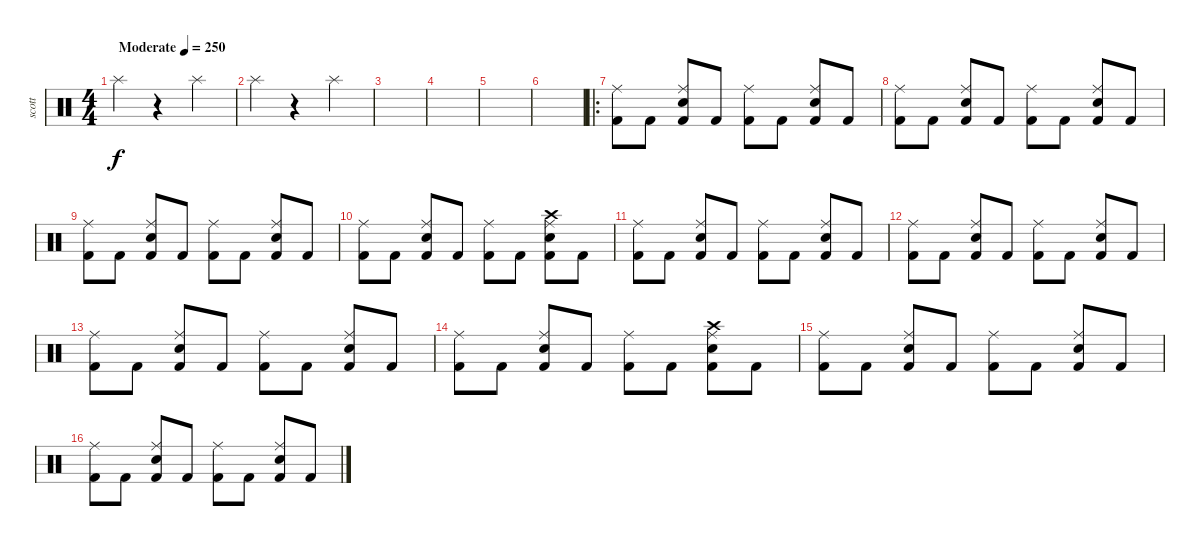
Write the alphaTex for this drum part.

\track ("scott" "scott") {instrument percussion bank 10}
\staff {score}
\articulation defaults
\ts (4 4)
\tempo (250 "Moderate")
\clef neutral
\ks c "Splash (hit)".4{dy f}
r.4 "Splash (hit)".4 |
"Splash (hit)".4 r.4 "Splash (hit)".4 |
|
|
|
|
\ro
("Kick (hit) 2" "Ride (middle)").8 "Kick (hit) 2".8 ("Kick (hit) 2" "Snare (hit) 2" "Ride (middle)").8 "Kick (hit) 2".8 ("Kick (hit) 2" "Ride (middle)").8 "Kick (hit) 2".8 ("Kick (hit) 2" "Snare (hit) 2" "Ride (middle)").8 "Kick (hit) 2".8 |
("Kick (hit) 2" "Ride (middle)").8 "Kick (hit) 2".8 ("Kick (hit) 2" "Snare (hit) 2" "Ride (middle)").8 "Kick (hit) 2".8 ("Kick (hit) 2" "Ride (middle)").8 "Kick (hit) 2".8 ("Kick (hit) 2" "Snare (hit) 2" "Ride (middle)").8 "Kick (hit) 2".8 |
("Kick (hit) 2" "Ride (middle)").8 "Kick (hit) 2".8 ("Kick (hit) 2" "Snare (hit) 2" "Ride (middle)").8 "Kick (hit) 2".8 ("Kick (hit) 2" "Ride (middle)").8 "Kick (hit) 2".8 ("Kick (hit) 2" "Snare (hit) 2" "Ride (middle)").8 "Kick (hit) 2".8 |
("Kick (hit) 2" "Ride (middle)").8 "Kick (hit) 2".8 ("Kick (hit) 2" "Snare (hit) 2" "Ride (middle)").8 "Kick (hit) 2".8 ("Kick (hit) 2" "Ride (middle)").8 "Kick (hit) 2".8 ("Kick (hit) 2" "Snare (hit) 2" "Ride (middle)" "Crash high (hit)").8 "Kick (hit) 2".8 |
("Kick (hit) 2" "Ride (middle)").8 "Kick (hit) 2".8 ("Kick (hit) 2" "Snare (hit) 2" "Ride (middle)").8 "Kick (hit) 2".8 ("Kick (hit) 2" "Ride (middle)").8 "Kick (hit) 2".8 ("Kick (hit) 2" "Snare (hit) 2" "Ride (middle)").8 "Kick (hit) 2".8 |
("Kick (hit) 2" "Ride (middle)").8 "Kick (hit) 2".8 ("Kick (hit) 2" "Snare (hit) 2" "Ride (middle)").8 "Kick (hit) 2".8 ("Kick (hit) 2" "Ride (middle)").8 "Kick (hit) 2".8 ("Kick (hit) 2" "Snare (hit) 2" "Ride (middle)").8 "Kick (hit) 2".8 |
("Kick (hit) 2" "Ride (middle)").8 "Kick (hit) 2".8 ("Kick (hit) 2" "Snare (hit) 2" "Ride (middle)").8 "Kick (hit) 2".8 ("Kick (hit) 2" "Ride (middle)").8 "Kick (hit) 2".8 ("Kick (hit) 2" "Snare (hit) 2" "Ride (middle)").8 "Kick (hit) 2".8 |
("Kick (hit) 2" "Ride (middle)").8 "Kick (hit) 2".8 ("Kick (hit) 2" "Snare (hit) 2" "Ride (middle)").8 "Kick (hit) 2".8 ("Kick (hit) 2" "Ride (middle)").8 "Kick (hit) 2".8 ("Kick (hit) 2" "Snare (hit) 2" "Ride (middle)" "Crash high (hit)").8 "Kick (hit) 2".8 |
("Kick (hit) 2" "Ride (middle)").8 "Kick (hit) 2".8 ("Kick (hit) 2" "Snare (hit) 2" "Ride (middle)").8 "Kick (hit) 2".8 ("Kick (hit) 2" "Ride (middle)").8 "Kick (hit) 2".8 ("Kick (hit) 2" "Snare (hit) 2" "Ride (middle)").8 "Kick (hit) 2".8 |
("Kick (hit) 2" "Ride (middle)").8 "Kick (hit) 2".8 ("Kick (hit) 2" "Snare (hit) 2" "Ride (middle)").8 "Kick (hit) 2".8 ("Kick (hit) 2" "Ride (middle)").8 "Kick (hit) 2".8 ("Kick (hit) 2" "Snare (hit) 2" "Ride (middle)").8 "Kick (hit) 2".8
